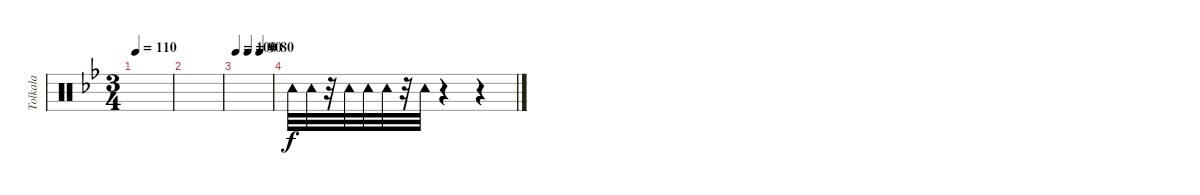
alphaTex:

\track ("Tolkala" "Tolkala") {instrument percussion}
\staff {score}
\articulation defaults
\ts (3 4)
\tempo 110
\clef neutral
\ks bb
|
|
\tempo 100
\tempo (90 0.3333333333333333)
\tempo (80 0.6666666666666666)
|
"Tambourine (hit)".32 "Tambourine (hit)".32 r.32 "Tambourine (hit)".32 "Tambourine (hit)".32 "Tambourine (hit)".32 r.32 "Tambourine (hit)".32 r.4 r.4
